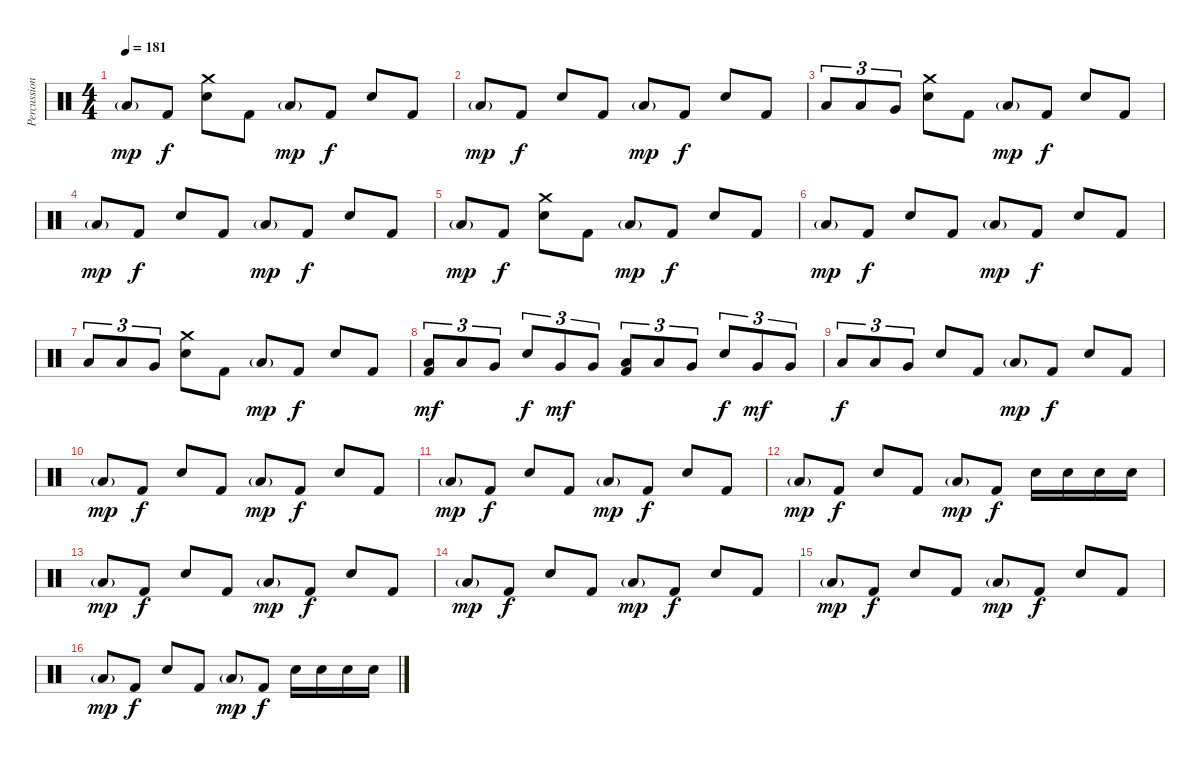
\track ("Percussion" "Percussion") {instrument percussion}
\staff {score}
\articulation defaults
\ts (4 4)
\tempo 181
\clef neutral
\ks c "Low Tom (hit)"{g}.8{dy mp} "Kick (hit) 2".8{dy f}
("Crash medium (hit)" "Electric Snare (hit)").8 "Kick (hit) 2".8 "Low Tom (hit)"{g}.8{dy mp} "Kick (hit) 2".8{dy f} "Electric Snare (hit)".8 "Kick (hit) 2".8 |
"Low Tom (hit)"{g}.8{dy mp} "Kick (hit) 2".8{dy f} "Electric Snare (hit)".8 "Kick (hit) 2".8 "Low Tom (hit)"{g}.8{dy mp} "Kick (hit) 2".8{dy f} "Electric Snare (hit)".8 "Kick (hit) 2".8 |
"Low Tom (hit)".8{tu (3 2)} "Low Tom (hit)".8{tu (3 2)} "Very Low Tom (hit)".8{tu (3 2)} ("Crash medium (hit)" "Electric Snare (hit)").8 "Kick (hit) 2".8 "Low Tom (hit)"{g}.8{dy mp} "Kick (hit) 2".8{dy f} "Electric Snare (hit)".8 "Kick (hit) 2".8 |
"Low Tom (hit)"{g}.8{dy mp} "Kick (hit) 2".8{dy f} "Electric Snare (hit)".8 "Kick (hit) 2".8 "Low Tom (hit)"{g}.8{dy mp} "Kick (hit) 2".8{dy f} "Electric Snare (hit)".8 "Kick (hit) 2".8 |
"Low Tom (hit)"{g}.8{dy mp} "Kick (hit) 2".8{dy f} ("Crash medium (hit)" "Electric Snare (hit)").8 "Kick (hit) 2".8 "Low Tom (hit)"{g}.8{dy mp} "Kick (hit) 2".8{dy f} "Electric Snare (hit)".8 "Kick (hit) 2".8 |
"Low Tom (hit)"{g}.8{dy mp} "Kick (hit) 2".8{dy f} "Electric Snare (hit)".8 "Kick (hit) 2".8 "Low Tom (hit)"{g}.8{dy mp} "Kick (hit) 2".8{dy f} "Electric Snare (hit)".8 "Kick (hit) 2".8 |
"Low Tom (hit)".8{tu (3 2)} "Low Tom (hit)".8{tu (3 2)} "Very Low Tom (hit)".8{tu (3 2)} ("Crash medium (hit)" "Electric Snare (hit)").8 "Kick (hit) 2".8 "Low Tom (hit)"{g}.8{dy mp} "Kick (hit) 2".8{dy f} "Electric Snare (hit)".8 "Kick (hit) 2".8 |
("Low Tom (hit)" "Kick (hit) 2").8{tu (3 2) dy mf} "Low Tom (hit)".8{tu (3 2)} "Very Low Tom (hit)".8{tu (3 2)} "Electric Snare (hit)".8{tu (3 2) dy f} "Very Low Tom (hit)".8{tu (3 2) dy mf} "Very Low Tom (hit)".8{tu (3 2)} ("Low Tom (hit)" "Kick (hit) 2").8{tu (3 2)} "Low Tom (hit)".8{tu (3 2)} "Very Low Tom (hit)".8{tu (3 2)} "Electric Snare (hit)".8{tu (3 2) dy f} "Very Low Tom (hit)".8{tu (3 2) dy mf} "Very Low Tom (hit)".8{tu (3 2)} |
"Low Tom (hit)".8{tu (3 2) dy f} "Low Tom (hit)".8{tu (3 2)} "Very Low Tom (hit)".8{tu (3 2)} "Electric Snare (hit)".8 "Kick (hit) 2".8 "Low Tom (hit)"{g}.8{dy mp} "Kick (hit) 2".8{dy f} "Electric Snare (hit)".8 "Kick (hit) 2".8 |
"Low Tom (hit)"{g}.8{dy mp} "Kick (hit) 2".8{dy f} "Electric Snare (hit)".8 "Kick (hit) 2".8 "Low Tom (hit)"{g}.8{dy mp} "Kick (hit) 2".8{dy f} "Electric Snare (hit)".8 "Kick (hit) 2".8 |
"Low Tom (hit)"{g}.8{dy mp} "Kick (hit) 2".8{dy f} "Electric Snare (hit)".8 "Kick (hit) 2".8 "Low Tom (hit)"{g}.8{dy mp} "Kick (hit) 2".8{dy f} "Electric Snare (hit)".8 "Kick (hit) 2".8 |
"Low Tom (hit)"{g}.8{dy mp} "Kick (hit) 2".8{dy f} "Electric Snare (hit)".8 "Kick (hit) 2".8 "Low Tom (hit)"{g}.8{dy mp} "Kick (hit) 2".8{dy f} "Electric Snare (hit)".16 "Electric Snare (hit)".16 "Electric Snare (hit)".16 "Electric Snare (hit)".16 |
"Low Tom (hit)"{g}.8{dy mp} "Kick (hit) 2".8{dy f} "Electric Snare (hit)".8 "Kick (hit) 2".8 "Low Tom (hit)"{g}.8{dy mp} "Kick (hit) 2".8{dy f} "Electric Snare (hit)".8 "Kick (hit) 2".8 |
"Low Tom (hit)"{g}.8{dy mp} "Kick (hit) 2".8{dy f} "Electric Snare (hit)".8 "Kick (hit) 2".8 "Low Tom (hit)"{g}.8{dy mp} "Kick (hit) 2".8{dy f} "Electric Snare (hit)".8 "Kick (hit) 2".8 |
"Low Tom (hit)"{g}.8{dy mp} "Kick (hit) 2".8{dy f} "Electric Snare (hit)".8 "Kick (hit) 2".8 "Low Tom (hit)"{g}.8{dy mp} "Kick (hit) 2".8{dy f} "Electric Snare (hit)".8 "Kick (hit) 2".8 |
"Low Tom (hit)"{g}.8{dy mp} "Kick (hit) 2".8{dy f} "Electric Snare (hit)".8 "Kick (hit) 2".8 "Low Tom (hit)"{g}.8{dy mp} "Kick (hit) 2".8{dy f} "Electric Snare (hit)".16 "Electric Snare (hit)".16 "Electric Snare (hit)".16 "Electric Snare (hit)".16
